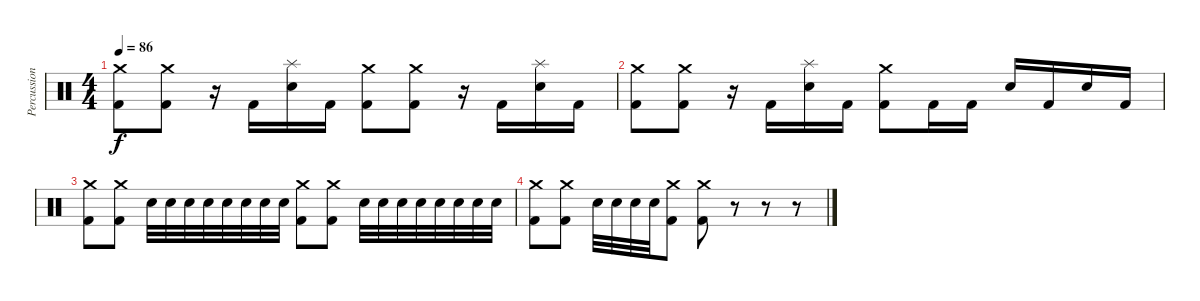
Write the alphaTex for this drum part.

\track ("Percussioni" "Percussion") {instrument percussion}
\staff {score}
\articulation defaults
\ts (4 4)
\tempo 86
\clef neutral
\ks c
("Crash medium (hit)" "Kick (hit) 2").8{dy f} ("Crash medium (hit)" "Kick (hit) 2").8 r.16 "Kick (hit) 2".16 ("Splash (hit)" "Snare (hit) 2").16 "Kick (hit) 2".16 ("Crash medium (hit)" "Kick (hit) 2").8 ("Crash medium (hit)" "Kick (hit) 2").8 r.16 "Kick (hit) 2".16 ("Splash (hit)" "Snare (hit) 2").16 "Kick (hit) 2".16 |
("Crash medium (hit)" "Kick (hit) 2").8 ("Crash medium (hit)" "Kick (hit) 2").8 r.16 "Kick (hit) 2".16 ("Splash (hit)" "Snare (hit) 2").16 "Kick (hit) 2".16 ("Crash medium (hit)" "Kick (hit) 2").8 "Kick (hit) 2".16 "Kick (hit) 2".16 "Snare (hit) 2".16 "Kick (hit) 2".16 "Snare (hit) 2".16 "Kick (hit) 2".16 |
("Crash medium (hit)" "Kick (hit) 2").8 ("Crash medium (hit)" "Kick (hit) 2").8 "Snare (hit) 2".32 "Snare (hit) 2".32 "Snare (hit) 2".32 "Snare (hit) 2".32 "Snare (hit) 2".32 "Snare (hit) 2".32 "Snare (hit) 2".32 "Snare (hit) 2".32 ("Crash medium (hit)" "Kick (hit) 2").8 ("Crash medium (hit)" "Kick (hit) 2").8 "Snare (hit) 2".32 "Snare (hit) 2".32 "Snare (hit) 2".32 "Snare (hit) 2".32 "Snare (hit) 2".32 "Snare (hit) 2".32 "Snare (hit) 2".32 "Snare (hit) 2".32 |
("Crash medium (hit)" "Kick (hit) 2").8 ("Crash medium (hit)" "Kick (hit) 2").8 "Snare (hit) 2".32 "Snare (hit) 2".32 "Snare (hit) 2".32 "Snare (hit) 2".32 ("Crash medium (hit)" "Kick (hit) 2").8 ("Crash medium (hit)" "Kick (hit) 2").8 r.8 r.8 r.8
